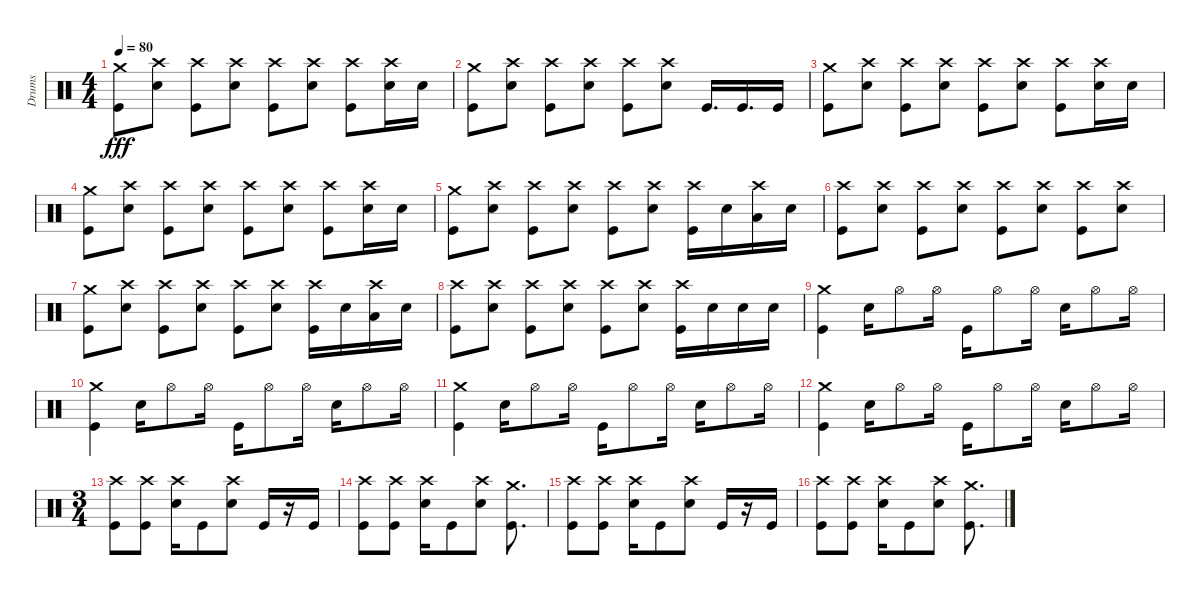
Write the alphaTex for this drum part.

\track ("Drums" "Drums") {instrument percussion}
\staff {score}
\articulation defaults
\ts (4 4)
\tempo 80
\clef neutral
\ks c
("Kick (hit)" "Crash medium (hit)").8{dy fff} ("Snare (hit) 2" "Crash high (hit)").8 ("Kick (hit)" "Crash high (hit)").8 ("Snare (hit) 2" "Crash high (hit)").8 ("Kick (hit)" "Crash high (hit)").8 ("Snare (hit) 2" "Crash high (hit)").8 ("Kick (hit)" "Crash high (hit)").8 ("Snare (hit) 2" "Crash high (hit)").16 "Snare (hit) 2".16 |
("Kick (hit)" "Crash medium (hit)").8 ("Snare (hit) 2" "Crash high (hit)").8 ("Kick (hit)" "Crash high (hit)").8 ("Snare (hit) 2" "Crash high (hit)").8 ("Kick (hit)" "Crash high (hit)").8 ("Snare (hit) 2" "Crash high (hit)").8 "Kick (hit)".16{d} "Kick (hit)".16{d} "Kick (hit)".16 |
("Kick (hit)" "Crash medium (hit)").8 ("Snare (hit) 2" "Crash high (hit)").8 ("Kick (hit)" "Crash high (hit)").8 ("Snare (hit) 2" "Crash high (hit)").8 ("Kick (hit)" "Crash high (hit)").8 ("Snare (hit) 2" "Crash high (hit)").8 ("Kick (hit)" "Crash high (hit)").8 ("Snare (hit) 2" "Crash high (hit)").16 "Snare (hit) 2".16 |
("Kick (hit)" "Crash medium (hit)").8 ("Snare (hit) 2" "Crash high (hit)").8 ("Kick (hit)" "Crash high (hit)").8 ("Snare (hit) 2" "Crash high (hit)").8 ("Kick (hit)" "Crash high (hit)").8 ("Snare (hit) 2" "Crash high (hit)").8 ("Kick (hit)" "Crash high (hit)").8 ("Snare (hit) 2" "Crash high (hit)").16 "Snare (hit) 2".16 |
("Kick (hit)" "Crash medium (hit)").8 ("Snare (hit) 2" "Crash high (hit)").8 ("Kick (hit)" "Crash high (hit)").8 ("Snare (hit) 2" "Crash high (hit)").8 ("Kick (hit)" "Crash high (hit)").8 ("Snare (hit) 2" "Crash high (hit)").8 ("Kick (hit)" "Crash high (hit)").16 "Snare (hit) 2".16 ("Low Floor Tom (hit)" "Crash high (hit)").16 "Snare (hit) 2".16 |
("Kick (hit)" "Crash high (hit)").8 ("Snare (hit) 2" "Crash high (hit)").8 ("Kick (hit)" "Crash high (hit)").8 ("Snare (hit) 2" "Crash high (hit)").8 ("Kick (hit)" "Crash high (hit)").8 ("Snare (hit) 2" "Crash high (hit)").8 ("Kick (hit)" "Crash high (hit)").8 ("Snare (hit) 2" "Crash high (hit)").8 |
("Kick (hit)" "Crash medium (hit)").8 ("Snare (hit) 2" "Crash high (hit)").8 ("Kick (hit)" "Crash high (hit)").8 ("Snare (hit) 2" "Crash high (hit)").8 ("Kick (hit)" "Crash high (hit)").8 ("Snare (hit) 2" "Crash high (hit)").8 ("Kick (hit)" "Crash high (hit)").16 "Snare (hit) 2".16 ("Low Floor Tom (hit)" "Crash high (hit)").16 "Snare (hit) 2".16 |
("Kick (hit)" "Crash high (hit)").8 ("Snare (hit) 2" "Crash high (hit)").8 ("Kick (hit)" "Crash high (hit)").8 ("Snare (hit) 2" "Crash high (hit)").8 ("Kick (hit)" "Crash high (hit)").8 ("Snare (hit) 2" "Crash high (hit)").8 ("Kick (hit)" "Crash high (hit)").16 "Snare (hit) 2".16 "Snare (hit) 2".16 "Snare (hit) 2".16 |
("Kick (hit)" "Crash medium (hit)").4 "Snare (hit) 2".16 "Hi-Hat (open)".8 "Hi-Hat (open)".16 "Kick (hit)".16 "Hi-Hat (open)".8 "Hi-Hat (open)".16 "Snare (hit) 2".16 "Hi-Hat (open)".8 "Hi-Hat (open)".16 |
("Kick (hit)" "Crash medium (hit)").4 "Snare (hit) 2".16 "Hi-Hat (open)".8 "Hi-Hat (open)".16 "Kick (hit)".16 "Hi-Hat (open)".8 "Hi-Hat (open)".16 "Snare (hit) 2".16 "Hi-Hat (open)".8 "Hi-Hat (open)".16 |
("Kick (hit)" "Crash medium (hit)").4 "Snare (hit) 2".16 "Hi-Hat (open)".8 "Hi-Hat (open)".16 "Kick (hit)".16 "Hi-Hat (open)".8 "Hi-Hat (open)".16 "Snare (hit) 2".16 "Hi-Hat (open)".8 "Hi-Hat (open)".16 |
("Kick (hit)" "Crash medium (hit)").4 "Snare (hit) 2".16 "Hi-Hat (open)".8 "Hi-Hat (open)".16 "Kick (hit)".16 "Hi-Hat (open)".8 "Hi-Hat (open)".16 "Snare (hit) 2".16 "Hi-Hat (open)".8 "Hi-Hat (open)".16 |
\ts (3 4)
("Kick (hit)" "Crash high (hit)").8 ("Kick (hit)" "Crash high (hit)").8 ("Snare (hit) 2" "Crash high (hit)").16 "Kick (hit)".8 ("Snare (hit) 2" "Crash high (hit)").8 "Kick (hit)".16 r.16 "Kick (hit)".16 |
("Kick (hit)" "Crash high (hit)").8 ("Kick (hit)" "Crash high (hit)").8 ("Snare (hit) 2" "Crash high (hit)").16 "Kick (hit)".8 ("Snare (hit) 2" "Crash high (hit)").8 ("Kick (hit)" "Crash medium (hit)").8{d} |
("Kick (hit)" "Crash high (hit)").8 ("Kick (hit)" "Crash high (hit)").8 ("Snare (hit) 2" "Crash high (hit)").16 "Kick (hit)".8 ("Snare (hit) 2" "Crash high (hit)").8 "Kick (hit)".16 r.16 "Kick (hit)".16 |
("Kick (hit)" "Crash high (hit)").8 ("Kick (hit)" "Crash high (hit)").8 ("Snare (hit) 2" "Crash high (hit)").16 "Kick (hit)".8 ("Snare (hit) 2" "Crash high (hit)").8 ("Kick (hit)" "Crash medium (hit)").8{d}
